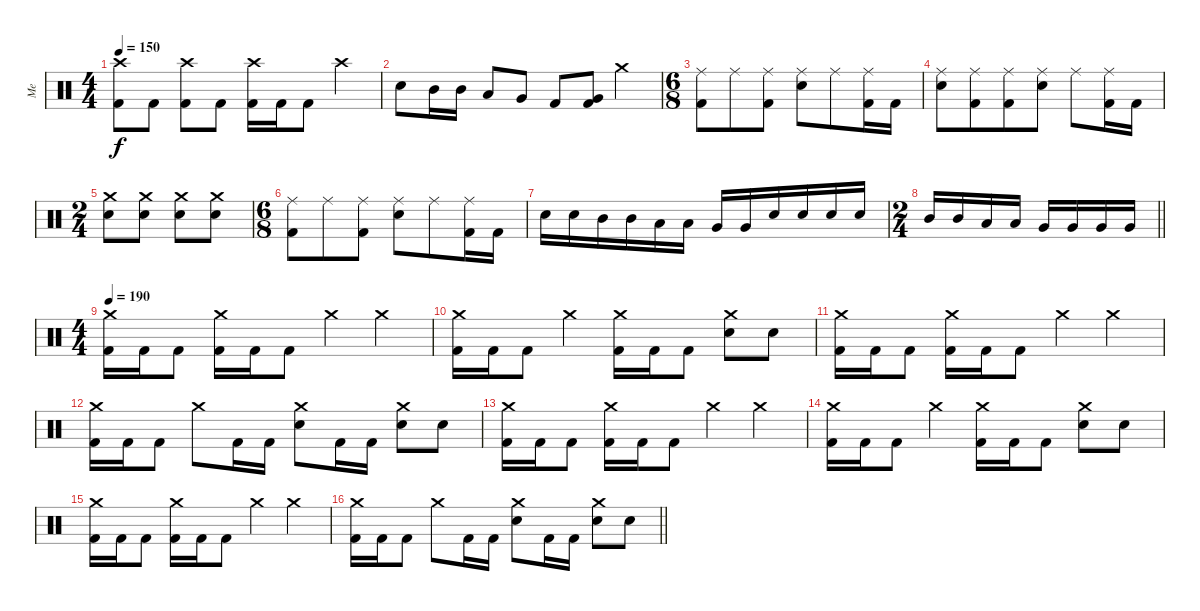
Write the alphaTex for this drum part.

\track ("Me" "Me") {instrument percussion}
\staff {score}
\articulation defaults
\ts (4 4)
\tempo 150
\clef neutral
\ks c
("Crash high (hit)" "Kick (hit) 2").8{dy f} "Kick (hit) 2".8 ("Crash high (hit)" "Kick (hit) 2").8 "Kick (hit) 2".8 ("Crash high (hit)" "Kick (hit) 2").16 "Kick (hit) 2".16 "Kick (hit) 2".8 "Crash high (hit)".4 |
"Snare (hit) 2".8 "Mid Tom (hit)".16 "Mid Tom (hit)".16 "Low Tom (hit)".8 "Very Low Tom (hit)".8 "Kick (hit) 2".8 ("Very Low Tom (hit)" "Kick (hit) 2").8 "Crash medium (hit)".4 |
\ts (6 8)
("Ride (middle)" "Kick (hit) 2").8 "Ride (middle)".8 ("Ride (middle)" "Kick (hit) 2").8 ("Ride (middle)" "Snare (hit) 2").8 "Ride (middle)".8 ("Ride (middle)" "Kick (hit) 2").16 "Kick (hit) 2".16 |
("Ride (middle)" "Snare (hit) 2").8 ("Ride (middle)" "Kick (hit) 2").8 ("Ride (middle)" "Kick (hit) 2").8{beam merge} ("Ride (middle)" "Snare (hit) 2").8{beam split} "Ride (middle)".8 ("Ride (middle)" "Kick (hit) 2").16 "Kick (hit) 2".16 |
\ts (2 4)
("Crash medium (hit)" "Snare (hit) 2").8 ("Crash medium (hit)" "Snare (hit) 2").8 ("Crash medium (hit)" "Snare (hit) 2").8 ("Crash medium (hit)" "Snare (hit) 2").8 |
\ts (6 8)
("Ride (middle)" "Kick (hit) 2").8 "Ride (middle)".8 ("Ride (middle)" "Kick (hit) 2").8 ("Ride (middle)" "Snare (hit) 2").8 "Ride (middle)".8 ("Ride (middle)" "Kick (hit) 2").16 "Kick (hit) 2".16 |
"Snare (hit) 2".16 "Snare (hit) 2".16 "Mid Tom (hit)".16 "Mid Tom (hit)".16 "Low Tom (hit)".16 "Low Tom (hit)".16 "Very Low Tom (hit)".16 "Very Low Tom (hit)".16 "Snare (hit) 2".16 "Snare (hit) 2".16 "Snare (hit) 2".16 "Snare (hit) 2".16 |
\ts (2 4)
\barLineRight lightlight "Mid Tom (hit)".16 "Mid Tom (hit)".16 "Low Tom (hit)".16 "Low Tom (hit)".16 "Very Low Tom (hit)".16 "Very Low Tom (hit)".16 "Very Low Tom (hit)".16 "Very Low Tom (hit)".16
|
\ts (4 4)
\tempo 190
("Crash medium (hit)" "Kick (hit) 2").16 "Kick (hit) 2".16 "Kick (hit) 2".8 ("Crash medium (hit)" "Kick (hit) 2").16 "Kick (hit) 2".16 "Kick (hit) 2".8 "Crash medium (hit)".4 "Crash medium (hit)".4 |
("Crash medium (hit)" "Kick (hit) 2").16 "Kick (hit) 2".16 "Kick (hit) 2".8 "Crash medium (hit)".4 ("Crash medium (hit)" "Kick (hit) 2").16 "Kick (hit) 2".16 "Kick (hit) 2".8 ("Crash medium (hit)" "Snare (hit) 2").8 "Snare (hit) 2".8 |
("Crash medium (hit)" "Kick (hit) 2").16 "Kick (hit) 2".16 "Kick (hit) 2".8 ("Crash medium (hit)" "Kick (hit) 2").16 "Kick (hit) 2".16 "Kick (hit) 2".8 "Crash medium (hit)".4 "Crash medium (hit)".4 |
("Crash medium (hit)" "Kick (hit) 2").16 "Kick (hit) 2".16 "Kick (hit) 2".8 "Crash medium (hit)".8 "Kick (hit) 2".16 "Kick (hit) 2".16 ("Crash medium (hit)" "Snare (hit) 2").8 "Kick (hit) 2".16 "Kick (hit) 2".16 ("Crash medium (hit)" "Snare (hit) 2").8 "Snare (hit) 2".8 |
("Crash medium (hit)" "Kick (hit) 2").16 "Kick (hit) 2".16 "Kick (hit) 2".8 ("Crash medium (hit)" "Kick (hit) 2").16 "Kick (hit) 2".16 "Kick (hit) 2".8 "Crash medium (hit)".4 "Crash medium (hit)".4 |
("Crash medium (hit)" "Kick (hit) 2").16 "Kick (hit) 2".16 "Kick (hit) 2".8 "Crash medium (hit)".4 ("Crash medium (hit)" "Kick (hit) 2").16 "Kick (hit) 2".16 "Kick (hit) 2".8 ("Crash medium (hit)" "Snare (hit) 2").8 "Snare (hit) 2".8 |
("Crash medium (hit)" "Kick (hit) 2").16 "Kick (hit) 2".16 "Kick (hit) 2".8 ("Crash medium (hit)" "Kick (hit) 2").16 "Kick (hit) 2".16 "Kick (hit) 2".8 "Crash medium (hit)".4 "Crash medium (hit)".4 |
\barLineRight lightlight
("Crash medium (hit)" "Kick (hit) 2").16 "Kick (hit) 2".16 "Kick (hit) 2".8 "Crash medium (hit)".8 "Kick (hit) 2".16 "Kick (hit) 2".16 ("Crash medium (hit)" "Snare (hit) 2").8 "Kick (hit) 2".16 "Kick (hit) 2".16 ("Crash medium (hit)" "Snare (hit) 2").8 "Snare (hit) 2".8
